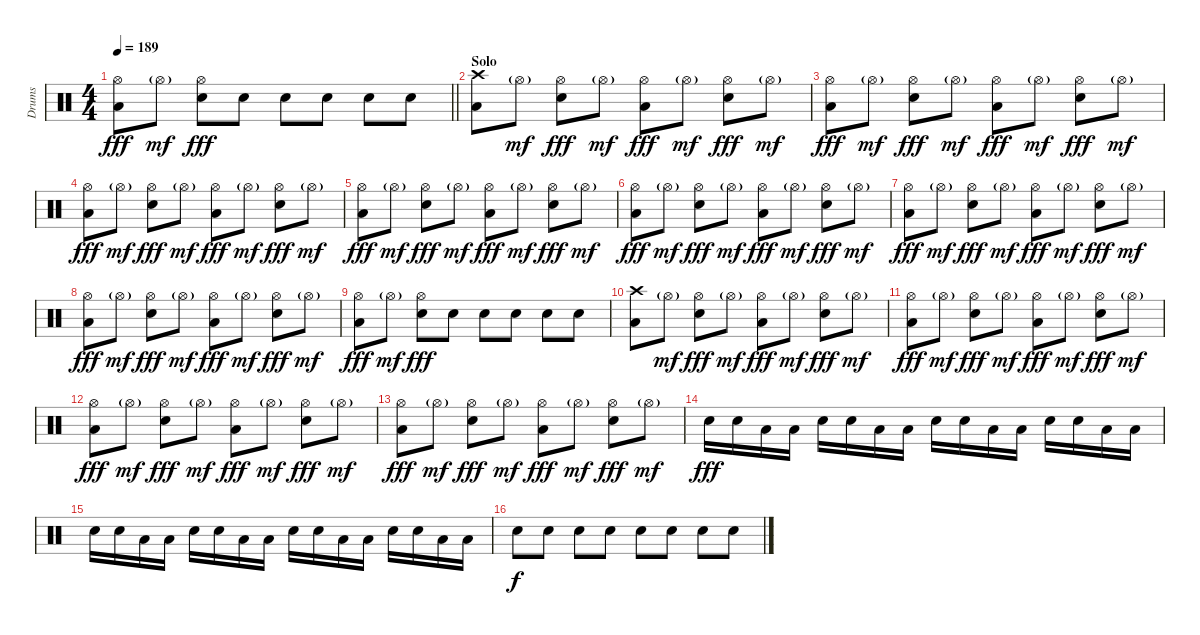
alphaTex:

\track ("Drums" "Drums") {instrument percussion}
\staff {score}
\articulation defaults
\ts (4 4)
\tempo 189
\clef neutral
\barLineRight lightlight
\ks c
("Hi-Hat (open)" "Low Floor Tom (hit)").8{dy fff} "Hi-Hat (open)"{g}.8{dy mf} ("Hi-Hat (open)" "Snare (hit) 2").8{dy fff} "Snare (hit) 2".8 "Snare (hit) 2".8 "Snare (hit) 2".8 "Snare (hit) 2".8 "Snare (hit) 2".8 |
\section ("" "Solo")
("Crash high (hit)" "Low Floor Tom (hit)").8 "Hi-Hat (open)"{g}.8{dy mf} ("Hi-Hat (open)" "Snare (hit) 2").8{dy fff} "Hi-Hat (open)"{g}.8{dy mf} ("Hi-Hat (open)" "Low Floor Tom (hit)").8{dy fff} "Hi-Hat (open)"{g}.8{dy mf} ("Hi-Hat (open)" "Snare (hit) 2").8{dy fff} "Hi-Hat (open)"{g}.8{dy mf} |
("Hi-Hat (open)" "Low Floor Tom (hit)").8{dy fff} "Hi-Hat (open)"{g}.8{dy mf} ("Hi-Hat (open)" "Snare (hit) 2").8{dy fff} "Hi-Hat (open)"{g}.8{dy mf} ("Hi-Hat (open)" "Low Floor Tom (hit)").8{dy fff} "Hi-Hat (open)"{g}.8{dy mf} ("Hi-Hat (open)" "Snare (hit) 2").8{dy fff} "Hi-Hat (open)"{g}.8{dy mf} |
("Hi-Hat (open)" "Low Floor Tom (hit)").8{dy fff} "Hi-Hat (open)"{g}.8{dy mf} ("Hi-Hat (open)" "Snare (hit) 2").8{dy fff} "Hi-Hat (open)"{g}.8{dy mf} ("Hi-Hat (open)" "Low Floor Tom (hit)").8{dy fff} "Hi-Hat (open)"{g}.8{dy mf} ("Hi-Hat (open)" "Snare (hit) 2").8{dy fff} "Hi-Hat (open)"{g}.8{dy mf} |
("Hi-Hat (open)" "Low Floor Tom (hit)").8{dy fff} "Hi-Hat (open)"{g}.8{dy mf} ("Hi-Hat (open)" "Snare (hit) 2").8{dy fff} "Hi-Hat (open)"{g}.8{dy mf} ("Hi-Hat (open)" "Low Floor Tom (hit)").8{dy fff} "Hi-Hat (open)"{g}.8{dy mf} ("Hi-Hat (open)" "Snare (hit) 2").8{dy fff} "Hi-Hat (open)"{g}.8{dy mf} |
("Hi-Hat (open)" "Low Floor Tom (hit)").8{dy fff} "Hi-Hat (open)"{g}.8{dy mf} ("Hi-Hat (open)" "Snare (hit) 2").8{dy fff} "Hi-Hat (open)"{g}.8{dy mf} ("Hi-Hat (open)" "Low Floor Tom (hit)").8{dy fff} "Hi-Hat (open)"{g}.8{dy mf} ("Hi-Hat (open)" "Snare (hit) 2").8{dy fff} "Hi-Hat (open)"{g}.8{dy mf} |
("Hi-Hat (open)" "Low Floor Tom (hit)").8{dy fff} "Hi-Hat (open)"{g}.8{dy mf} ("Hi-Hat (open)" "Snare (hit) 2").8{dy fff} "Hi-Hat (open)"{g}.8{dy mf} ("Hi-Hat (open)" "Low Floor Tom (hit)").8{dy fff} "Hi-Hat (open)"{g}.8{dy mf} ("Hi-Hat (open)" "Snare (hit) 2").8{dy fff} "Hi-Hat (open)"{g}.8{dy mf} |
("Hi-Hat (open)" "Low Floor Tom (hit)").8{dy fff} "Hi-Hat (open)"{g}.8{dy mf} ("Hi-Hat (open)" "Snare (hit) 2").8{dy fff} "Hi-Hat (open)"{g}.8{dy mf} ("Hi-Hat (open)" "Low Floor Tom (hit)").8{dy fff} "Hi-Hat (open)"{g}.8{dy mf} ("Hi-Hat (open)" "Snare (hit) 2").8{dy fff} "Hi-Hat (open)"{g}.8{dy mf} |
("Hi-Hat (open)" "Low Floor Tom (hit)").8{dy fff} "Hi-Hat (open)"{g}.8{dy mf} ("Hi-Hat (open)" "Snare (hit) 2").8{dy fff} "Snare (hit) 2".8 "Snare (hit) 2".8 "Snare (hit) 2".8 "Snare (hit) 2".8 "Snare (hit) 2".8 |
("Crash high (hit)" "Low Floor Tom (hit)").8 "Hi-Hat (open)"{g}.8{dy mf} ("Hi-Hat (open)" "Snare (hit) 2").8{dy fff} "Hi-Hat (open)"{g}.8{dy mf} ("Hi-Hat (open)" "Low Floor Tom (hit)").8{dy fff} "Hi-Hat (open)"{g}.8{dy mf} ("Hi-Hat (open)" "Snare (hit) 2").8{dy fff} "Hi-Hat (open)"{g}.8{dy mf} |
("Hi-Hat (open)" "Low Floor Tom (hit)").8{dy fff} "Hi-Hat (open)"{g}.8{dy mf} ("Hi-Hat (open)" "Snare (hit) 2").8{dy fff} "Hi-Hat (open)"{g}.8{dy mf} ("Hi-Hat (open)" "Low Floor Tom (hit)").8{dy fff} "Hi-Hat (open)"{g}.8{dy mf} ("Hi-Hat (open)" "Snare (hit) 2").8{dy fff} "Hi-Hat (open)"{g}.8{dy mf} |
("Hi-Hat (open)" "Low Floor Tom (hit)").8{dy fff} "Hi-Hat (open)"{g}.8{dy mf} ("Hi-Hat (open)" "Snare (hit) 2").8{dy fff} "Hi-Hat (open)"{g}.8{dy mf} ("Hi-Hat (open)" "Low Floor Tom (hit)").8{dy fff} "Hi-Hat (open)"{g}.8{dy mf} ("Hi-Hat (open)" "Snare (hit) 2").8{dy fff} "Hi-Hat (open)"{g}.8{dy mf} |
("Hi-Hat (open)" "Low Floor Tom (hit)").8{dy fff} "Hi-Hat (open)"{g}.8{dy mf} ("Hi-Hat (open)" "Snare (hit) 2").8{dy fff} "Hi-Hat (open)"{g}.8{dy mf} ("Hi-Hat (open)" "Low Floor Tom (hit)").8{dy fff} "Hi-Hat (open)"{g}.8{dy mf} ("Hi-Hat (open)" "Snare (hit) 2").8{dy fff} "Hi-Hat (open)"{g}.8{dy mf} |
"Snare (hit) 2".16{dy fff} "Snare (hit) 2".16 "Low Tom (hit)".16 "Low Tom (hit)".16 "Snare (hit) 2".16 "Snare (hit) 2".16 "Low Tom (hit)".16 "Low Tom (hit)".16 "Snare (hit) 2".16 "Snare (hit) 2".16 "Low Tom (hit)".16 "Low Tom (hit)".16 "Snare (hit) 2".16 "Snare (hit) 2".16 "Low Tom (hit)".16 "Low Tom (hit)".16 |
"Snare (hit) 2".16 "Snare (hit) 2".16 "Low Tom (hit)".16 "Low Tom (hit)".16 "Snare (hit) 2".16 "Snare (hit) 2".16 "Low Tom (hit)".16 "Low Tom (hit)".16 "Snare (hit) 2".16 "Snare (hit) 2".16 "Low Tom (hit)".16 "Low Tom (hit)".16 "Snare (hit) 2".16 "Snare (hit) 2".16 "Low Tom (hit)".16 "Low Tom (hit)".16 |
"Snare (hit) 2".8{dy f} "Snare (hit) 2".8 "Snare (hit) 2".8 "Snare (hit) 2".8 "Snare (hit) 2".8 "Snare (hit) 2".8 "Snare (hit) 2".8 "Snare (hit) 2".8
